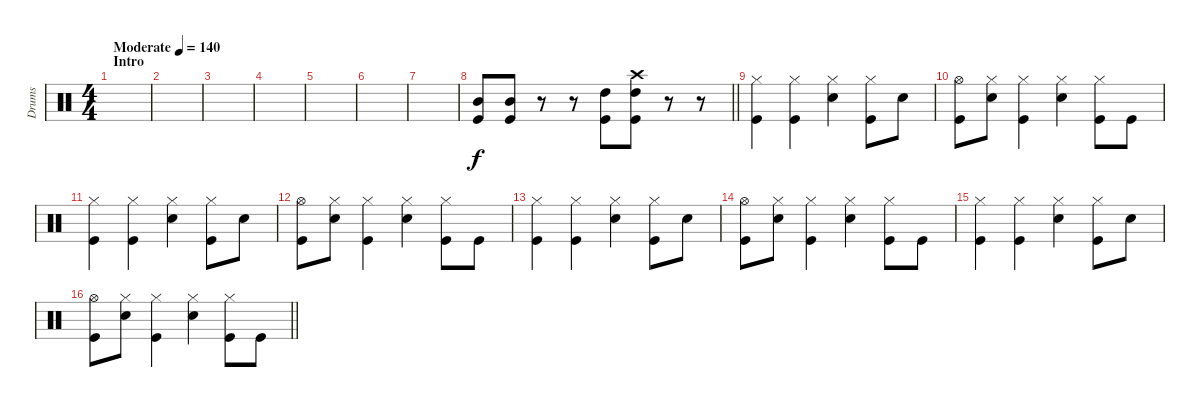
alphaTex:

\track ("Drums" "Drums") {instrument percussion}
\staff {score}
\articulation defaults
\ts (4 4)
\section ("" "Intro")
\tempo (140 "Moderate")
\clef neutral
\ks c
|
|
|
|
|
|
|
\barLineRight lightlight
("Mid Tom (hit)" "Kick (hit)").8 ("Mid Tom (hit)" "Kick (hit)").8 r.8 r.8 ("High Tom (hit)" "Kick (hit)").8 ("High Tom (hit)" "Kick (hit)" "Crash high (hit)").8 r.8 r.8 |
\section ("" "")
("Hi-Hat (closed)" "Kick (hit)").4 ("Hi-Hat (closed)" "Kick (hit)").4 ("Hi-Hat (closed)" "Snare (hit) 2").4 ("Hi-Hat (closed)" "Kick (hit)").8 "Snare (hit) 2".8 |
("Hi-Hat (open)" "Kick (hit)").8 ("Hi-Hat (closed)" "Snare (hit) 2").8 ("Hi-Hat (closed)" "Kick (hit)").4 ("Hi-Hat (closed)" "Snare (hit) 2").4 ("Hi-Hat (closed)" "Kick (hit)").8 "Kick (hit)".8 |
("Hi-Hat (closed)" "Kick (hit)").4 ("Hi-Hat (closed)" "Kick (hit)").4 ("Hi-Hat (closed)" "Snare (hit) 2").4 ("Hi-Hat (closed)" "Kick (hit)").8 "Snare (hit) 2".8 |
("Hi-Hat (open)" "Kick (hit)").8 ("Hi-Hat (closed)" "Snare (hit) 2").8 ("Hi-Hat (closed)" "Kick (hit)").4 ("Hi-Hat (closed)" "Snare (hit) 2").4 ("Hi-Hat (closed)" "Kick (hit)").8 "Kick (hit)".8 |
("Hi-Hat (closed)" "Kick (hit)").4 ("Hi-Hat (closed)" "Kick (hit)").4 ("Hi-Hat (closed)" "Snare (hit) 2").4 ("Hi-Hat (closed)" "Kick (hit)").8 "Snare (hit) 2".8 |
("Hi-Hat (open)" "Kick (hit)").8 ("Hi-Hat (closed)" "Snare (hit) 2").8 ("Hi-Hat (closed)" "Kick (hit)").4 ("Hi-Hat (closed)" "Snare (hit) 2").4 ("Hi-Hat (closed)" "Kick (hit)").8 "Kick (hit)".8 |
("Hi-Hat (closed)" "Kick (hit)").4 ("Hi-Hat (closed)" "Kick (hit)").4 ("Hi-Hat (closed)" "Snare (hit) 2").4 ("Hi-Hat (closed)" "Kick (hit)").8 "Snare (hit) 2".8 |
\barLineRight lightlight
("Hi-Hat (open)" "Kick (hit)").8 ("Hi-Hat (closed)" "Snare (hit) 2").8 ("Hi-Hat (closed)" "Kick (hit)").4 ("Hi-Hat (closed)" "Snare (hit) 2").4 ("Hi-Hat (closed)" "Kick (hit)").8 "Kick (hit)".8
